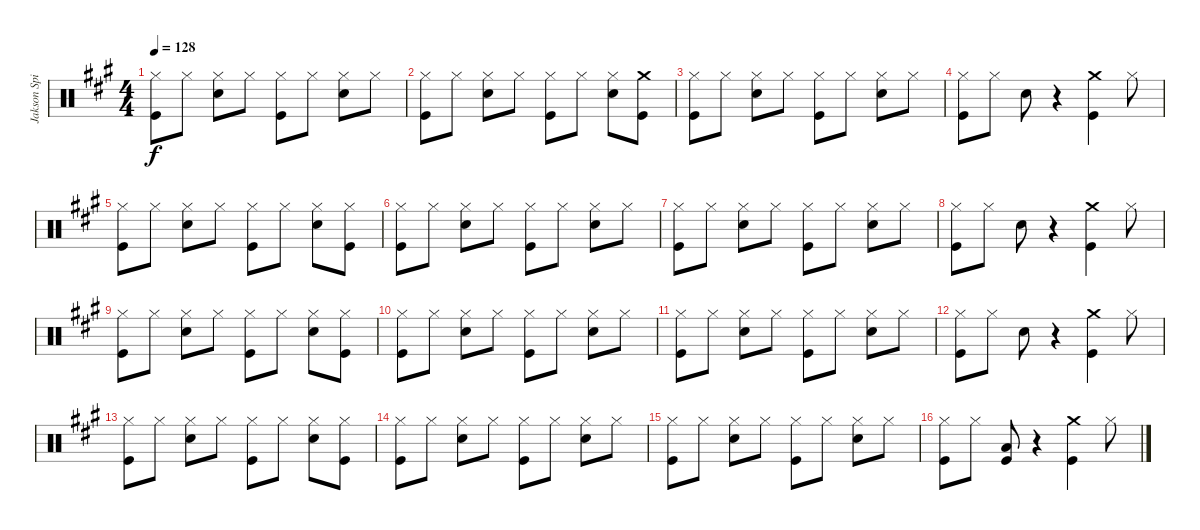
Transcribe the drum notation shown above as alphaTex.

\track ("Jakson Spires Drums" "Jakson Spi") {instrument percussion}
\staff {score}
\articulation defaults
\ts (4 4)
\tempo 128
\clef neutral
\ks a
("Hi-Hat (closed)" "Kick (hit)").8{dy f} "Hi-Hat (closed)".8 ("Hi-Hat (closed)" "Snare (hit) 2").8 "Hi-Hat (closed)".8 ("Hi-Hat (closed)" "Kick (hit)").8 "Hi-Hat (closed)".8 ("Hi-Hat (closed)" "Snare (hit) 2").8 "Hi-Hat (closed)".8 |
("Hi-Hat (closed)" "Kick (hit)").8 "Hi-Hat (closed)".8 ("Hi-Hat (closed)" "Snare (hit) 2").8 "Hi-Hat (closed)".8 ("Hi-Hat (closed)" "Kick (hit)").8 "Hi-Hat (closed)".8 ("Hi-Hat (closed)" "Snare (hit) 2").8 ("Crash medium (hit)" "Kick (hit)").8 |
("Hi-Hat (closed)" "Kick (hit)").8 "Hi-Hat (closed)".8 ("Hi-Hat (closed)" "Snare (hit) 2").8 "Hi-Hat (closed)".8 ("Hi-Hat (closed)" "Kick (hit)").8 "Hi-Hat (closed)".8 ("Hi-Hat (closed)" "Snare (hit) 2").8 "Hi-Hat (closed)".8 |
("Hi-Hat (closed)" "Kick (hit)").8 "Hi-Hat (closed)".8 "Snare (hit) 2".8 r.4 ("Crash medium (hit)" "Kick (hit)").4 "Hi-Hat (closed)".8 |
("Hi-Hat (closed)" "Kick (hit)").8 "Hi-Hat (closed)".8 ("Hi-Hat (closed)" "Snare (hit) 2").8 "Hi-Hat (closed)".8 ("Hi-Hat (closed)" "Kick (hit)").8 "Hi-Hat (closed)".8 ("Hi-Hat (closed)" "Snare (hit) 2").8 ("Hi-Hat (closed)" "Kick (hit)").8 |
("Hi-Hat (closed)" "Kick (hit)").8 "Hi-Hat (closed)".8 ("Hi-Hat (closed)" "Snare (hit) 2").8 "Hi-Hat (closed)".8 ("Hi-Hat (closed)" "Kick (hit)").8 "Hi-Hat (closed)".8 ("Hi-Hat (closed)" "Snare (hit) 2").8 "Hi-Hat (closed)".8 |
("Hi-Hat (closed)" "Kick (hit)").8 "Hi-Hat (closed)".8 ("Hi-Hat (closed)" "Snare (hit) 2").8 "Hi-Hat (closed)".8 ("Hi-Hat (closed)" "Kick (hit)").8 "Hi-Hat (closed)".8 ("Hi-Hat (closed)" "Snare (hit) 2").8 "Hi-Hat (closed)".8 |
("Hi-Hat (closed)" "Kick (hit)").8 "Hi-Hat (closed)".8 "Snare (hit) 2".8 r.4 ("Crash medium (hit)" "Kick (hit)").4 "Hi-Hat (closed)".8 |
("Hi-Hat (closed)" "Kick (hit)").8 "Hi-Hat (closed)".8 ("Hi-Hat (closed)" "Snare (hit) 2").8 "Hi-Hat (closed)".8 ("Hi-Hat (closed)" "Kick (hit)").8 "Hi-Hat (closed)".8 ("Hi-Hat (closed)" "Snare (hit) 2").8 ("Hi-Hat (closed)" "Kick (hit)").8 |
("Hi-Hat (closed)" "Kick (hit)").8 "Hi-Hat (closed)".8 ("Hi-Hat (closed)" "Snare (hit) 2").8 "Hi-Hat (closed)".8 ("Hi-Hat (closed)" "Kick (hit)").8 "Hi-Hat (closed)".8 ("Hi-Hat (closed)" "Snare (hit) 2").8 "Hi-Hat (closed)".8 |
("Hi-Hat (closed)" "Kick (hit)").8 "Hi-Hat (closed)".8 ("Hi-Hat (closed)" "Snare (hit) 2").8 "Hi-Hat (closed)".8 ("Hi-Hat (closed)" "Kick (hit)").8 "Hi-Hat (closed)".8 ("Hi-Hat (closed)" "Snare (hit) 2").8 "Hi-Hat (closed)".8 |
("Hi-Hat (closed)" "Kick (hit)").8 "Hi-Hat (closed)".8 "Snare (hit) 2".8 r.4 ("Crash medium (hit)" "Kick (hit)").4 "Hi-Hat (closed)".8 |
("Hi-Hat (closed)" "Kick (hit)").8 "Hi-Hat (closed)".8 ("Hi-Hat (closed)" "Snare (hit) 2").8 "Hi-Hat (closed)".8 ("Hi-Hat (closed)" "Kick (hit)").8 "Hi-Hat (closed)".8 ("Hi-Hat (closed)" "Snare (hit) 2").8 ("Hi-Hat (closed)" "Kick (hit)").8 |
("Hi-Hat (closed)" "Kick (hit)").8 "Hi-Hat (closed)".8 ("Hi-Hat (closed)" "Snare (hit) 2").8 "Hi-Hat (closed)".8 ("Hi-Hat (closed)" "Kick (hit)").8 "Hi-Hat (closed)".8 ("Hi-Hat (closed)" "Snare (hit) 2").8 "Hi-Hat (closed)".8 |
("Hi-Hat (closed)" "Kick (hit)").8 "Hi-Hat (closed)".8 ("Hi-Hat (closed)" "Snare (hit) 2").8 "Hi-Hat (closed)".8 ("Hi-Hat (closed)" "Kick (hit)").8 "Hi-Hat (closed)".8 ("Hi-Hat (closed)" "Snare (hit) 2").8 "Hi-Hat (closed)".8 |
("Hi-Hat (closed)" "Kick (hit)").8 "Hi-Hat (closed)".8 ("Low Tom (hit)" "Kick (hit)").8 r.4 ("Crash medium (hit)" "Kick (hit)").4 "Hi-Hat (closed)".8
